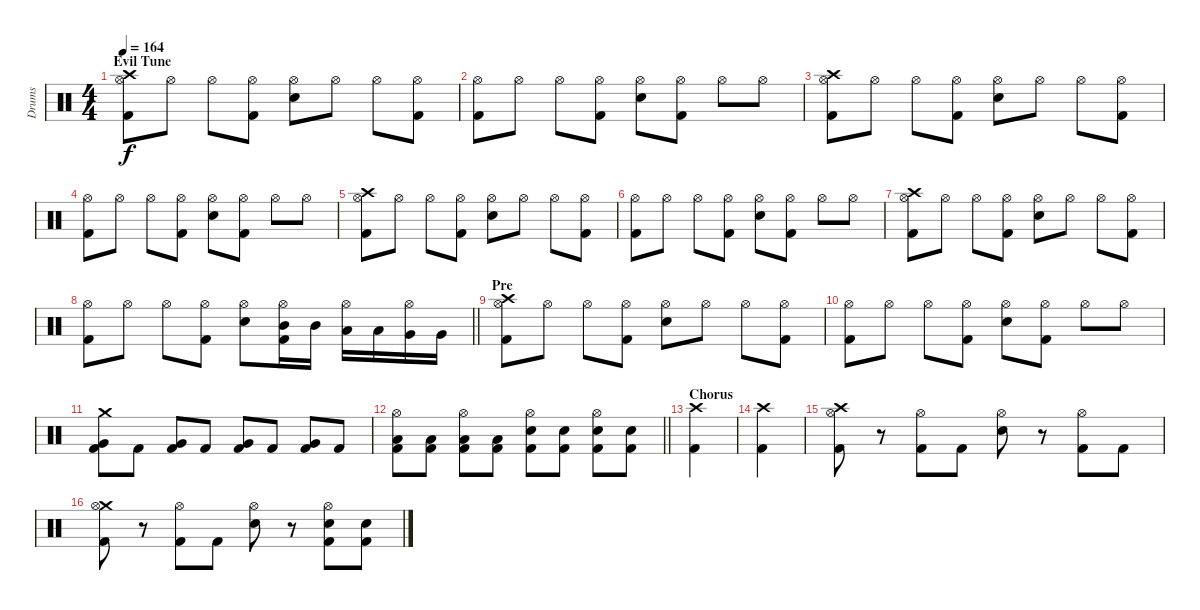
\track ("Drums" "Drums") {instrument percussion}
\staff {score}
\articulation defaults
\ts (4 4)
\section ("" "Evil Tune")
\tempo 164
\clef neutral
\ks c
("Crash high (hit)" "Hi-Hat (open)" "Kick (hit) 2").8{dy f} "Hi-Hat (open)".8 "Hi-Hat (open)".8 ("Hi-Hat (open)" "Kick (hit) 2").8 ("Hi-Hat (open)" "Snare (hit) 2").8 "Hi-Hat (open)".8 "Hi-Hat (open)".8 ("Hi-Hat (open)" "Kick (hit) 2").8 |
("Hi-Hat (open)" "Kick (hit) 2").8 "Hi-Hat (open)".8 "Hi-Hat (open)".8 ("Hi-Hat (open)" "Kick (hit) 2").8 ("Hi-Hat (open)" "Snare (hit) 2").8 ("Hi-Hat (open)" "Kick (hit) 2").8 "Hi-Hat (open)".8 "Hi-Hat (open)".8 |
("Crash high (hit)" "Hi-Hat (open)" "Kick (hit) 2").8 "Hi-Hat (open)".8 "Hi-Hat (open)".8 ("Hi-Hat (open)" "Kick (hit) 2").8 ("Hi-Hat (open)" "Snare (hit) 2").8 "Hi-Hat (open)".8 "Hi-Hat (open)".8 ("Hi-Hat (open)" "Kick (hit) 2").8 |
("Hi-Hat (open)" "Kick (hit) 2").8 "Hi-Hat (open)".8 "Hi-Hat (open)".8 ("Hi-Hat (open)" "Kick (hit) 2").8 ("Hi-Hat (open)" "Snare (hit) 2").8 ("Hi-Hat (open)" "Kick (hit) 2").8 "Hi-Hat (open)".8 "Hi-Hat (open)".8 |
("Crash high (hit)" "Hi-Hat (open)" "Kick (hit) 2").8 "Hi-Hat (open)".8 "Hi-Hat (open)".8 ("Hi-Hat (open)" "Kick (hit) 2").8 ("Hi-Hat (open)" "Snare (hit) 2").8 "Hi-Hat (open)".8 "Hi-Hat (open)".8 ("Hi-Hat (open)" "Kick (hit) 2").8 |
("Hi-Hat (open)" "Kick (hit) 2").8 "Hi-Hat (open)".8 "Hi-Hat (open)".8 ("Hi-Hat (open)" "Kick (hit) 2").8 ("Hi-Hat (open)" "Snare (hit) 2").8 ("Hi-Hat (open)" "Kick (hit) 2").8 "Hi-Hat (open)".8 "Hi-Hat (open)".8 |
("Crash high (hit)" "Hi-Hat (open)" "Kick (hit) 2").8 "Hi-Hat (open)".8 "Hi-Hat (open)".8 ("Hi-Hat (open)" "Kick (hit) 2").8 ("Hi-Hat (open)" "Snare (hit) 2").8 "Hi-Hat (open)".8 "Hi-Hat (open)".8 ("Hi-Hat (open)" "Kick (hit) 2").8 |
\barLineRight lightlight
("Hi-Hat (open)" "Kick (hit) 2").8 "Hi-Hat (open)".8 "Hi-Hat (open)".8 ("Hi-Hat (open)" "Kick (hit) 2").8 ("Hi-Hat (open)" "Snare (hit) 2").8 ("Hi-Hat (open)" "Mid Tom (hit)" "Kick (hit) 2").16 "Mid Tom (hit)".16 ("Hi-Hat (open)" "Low Tom (hit)").16 "Low Tom (hit)".16 ("Hi-Hat (open)" "Very Low Tom (hit)").16 "Very Low Tom (hit)".16 |
\section ("" "Pre")
("Crash high (hit)" "Hi-Hat (open)" "Kick (hit) 2").8 "Hi-Hat (open)".8 "Hi-Hat (open)".8 ("Hi-Hat (open)" "Kick (hit) 2").8 ("Hi-Hat (open)" "Snare (hit) 2").8 "Hi-Hat (open)".8 "Hi-Hat (open)".8 ("Hi-Hat (open)" "Kick (hit) 2").8 |
("Hi-Hat (open)" "Kick (hit) 2").8 "Hi-Hat (open)".8 "Hi-Hat (open)".8 ("Hi-Hat (open)" "Kick (hit) 2").8 ("Hi-Hat (open)" "Snare (hit) 2").8 ("Hi-Hat (open)" "Kick (hit) 2").8 "Hi-Hat (open)".8 "Hi-Hat (open)".8 |
("Crash medium (hit)" "Very Low Tom (hit)" "Kick (hit) 2").8 "Kick (hit) 2".8 ("Very Low Tom (hit)" "Kick (hit) 2").8 "Kick (hit) 2".8 ("Very Low Tom (hit)" "Kick (hit) 2").8 "Kick (hit) 2".8 ("Very Low Tom (hit)" "Kick (hit) 2").8 "Kick (hit) 2".8 |
\barLineRight lightlight
("Hi-Hat (open)" "Low Tom (hit)" "Kick (hit) 2").8 ("Low Tom (hit)" "Kick (hit) 2").8 ("Hi-Hat (open)" "Low Tom (hit)" "Kick (hit) 2").8 ("Low Tom (hit)" "Kick (hit) 2").8 ("Hi-Hat (open)" "Snare (hit) 2" "Kick (hit) 2").8 ("Snare (hit) 2" "Kick (hit) 2").8 ("Hi-Hat (open)" "Snare (hit) 2" "Kick (hit) 2").8 ("Snare (hit) 2" "Kick (hit) 2").8 |
\section ("" "Chorus")
("Crash high (hit)" "Kick (hit) 2").4 |
("Crash high (hit)" "Kick (hit) 2").4 |
("Crash high (hit)" "Hi-Hat (open)" "Kick (hit) 2").8 r.8 ("Hi-Hat (open)" "Kick (hit) 2").8 "Kick (hit) 2".8 ("Hi-Hat (open)" "Snare (hit) 2").8 r.8 ("Hi-Hat (open)" "Kick (hit) 2").8 "Kick (hit) 2".8 |
("Crash medium (hit)" "Hi-Hat (open)" "Kick (hit) 2").8 r.8 ("Hi-Hat (open)" "Kick (hit) 2").8 "Kick (hit) 2".8 ("Hi-Hat (open)" "Snare (hit) 2").8 r.8 ("Hi-Hat (open)" "Snare (hit) 2" "Kick (hit) 2").8 ("Snare (hit) 2" "Kick (hit) 2").8
